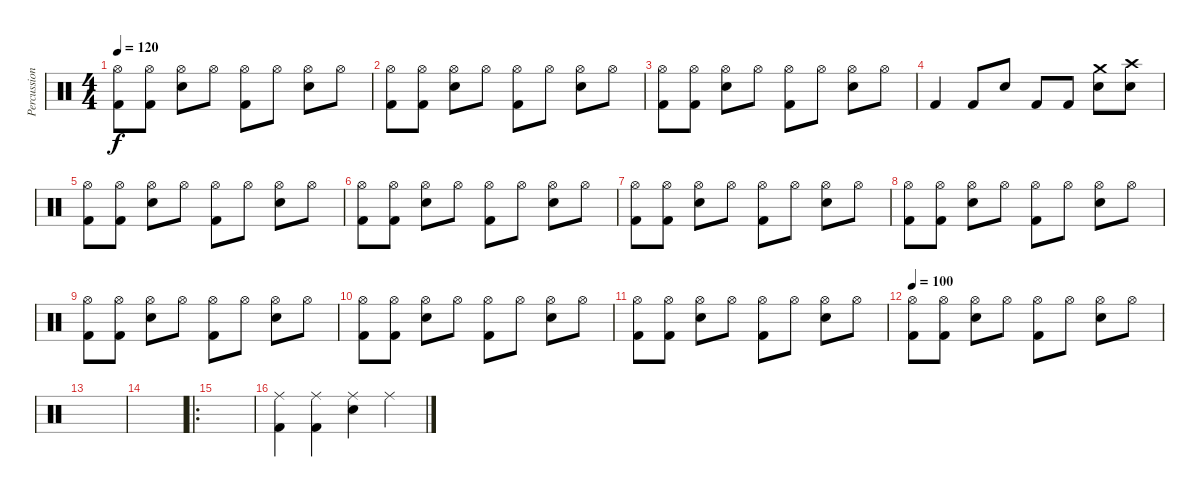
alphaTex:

\track ("Percussion" "Percussion") {instrument percussion}
\staff {score}
\articulation defaults
\ts (4 4)
\tempo 120
\clef neutral
\ks c
("Hi-Hat (open)" "Kick (hit) 2").8{dy f} ("Hi-Hat (open)" "Kick (hit) 2").8 ("Hi-Hat (open)" "Snare (hit) 2").8 "Hi-Hat (open)".8 ("Hi-Hat (open)" "Kick (hit) 2").8 "Hi-Hat (open)".8 ("Hi-Hat (open)" "Snare (hit) 2").8 "Hi-Hat (open)".8 |
("Hi-Hat (open)" "Kick (hit) 2").8 ("Hi-Hat (open)" "Kick (hit) 2").8 ("Hi-Hat (open)" "Snare (hit) 2").8 "Hi-Hat (open)".8 ("Hi-Hat (open)" "Kick (hit) 2").8 "Hi-Hat (open)".8 ("Hi-Hat (open)" "Snare (hit) 2").8 "Hi-Hat (open)".8 |
("Hi-Hat (open)" "Kick (hit) 2").8 ("Hi-Hat (open)" "Kick (hit) 2").8 ("Hi-Hat (open)" "Snare (hit) 2").8 "Hi-Hat (open)".8 ("Hi-Hat (open)" "Kick (hit) 2").8 "Hi-Hat (open)".8 ("Hi-Hat (open)" "Snare (hit) 2").8 "Hi-Hat (open)".8 |
"Kick (hit) 2".4 "Kick (hit) 2".8 "Snare (hit) 2".8 "Kick (hit) 2".8 "Kick (hit) 2".8 ("Crash medium (hit)" "Snare (hit) 2").8 ("Crash high (hit)" "Snare (hit) 2").8 |
("Hi-Hat (open)" "Kick (hit) 2").8 ("Hi-Hat (open)" "Kick (hit) 2").8 ("Hi-Hat (open)" "Snare (hit) 2").8 "Hi-Hat (open)".8 ("Hi-Hat (open)" "Kick (hit) 2").8 "Hi-Hat (open)".8 ("Hi-Hat (open)" "Snare (hit) 2").8 "Hi-Hat (open)".8 |
("Hi-Hat (open)" "Kick (hit) 2").8 ("Hi-Hat (open)" "Kick (hit) 2").8 ("Hi-Hat (open)" "Snare (hit) 2").8 "Hi-Hat (open)".8 ("Hi-Hat (open)" "Kick (hit) 2").8 "Hi-Hat (open)".8 ("Hi-Hat (open)" "Snare (hit) 2").8 "Hi-Hat (open)".8 |
("Hi-Hat (open)" "Kick (hit) 2").8 ("Hi-Hat (open)" "Kick (hit) 2").8 ("Hi-Hat (open)" "Snare (hit) 2").8 "Hi-Hat (open)".8 ("Hi-Hat (open)" "Kick (hit) 2").8 "Hi-Hat (open)".8 ("Hi-Hat (open)" "Snare (hit) 2").8 "Hi-Hat (open)".8 |
("Hi-Hat (open)" "Kick (hit) 2").8 ("Hi-Hat (open)" "Kick (hit) 2").8 ("Hi-Hat (open)" "Snare (hit) 2").8 "Hi-Hat (open)".8 ("Hi-Hat (open)" "Kick (hit) 2").8 "Hi-Hat (open)".8 ("Hi-Hat (open)" "Snare (hit) 2").8 "Hi-Hat (open)".8 |
("Hi-Hat (open)" "Kick (hit) 2").8 ("Hi-Hat (open)" "Kick (hit) 2").8 ("Hi-Hat (open)" "Snare (hit) 2").8 "Hi-Hat (open)".8 ("Hi-Hat (open)" "Kick (hit) 2").8 "Hi-Hat (open)".8 ("Hi-Hat (open)" "Snare (hit) 2").8 "Hi-Hat (open)".8 |
("Hi-Hat (open)" "Kick (hit) 2").8 ("Hi-Hat (open)" "Kick (hit) 2").8 ("Hi-Hat (open)" "Snare (hit) 2").8 "Hi-Hat (open)".8 ("Hi-Hat (open)" "Kick (hit) 2").8 "Hi-Hat (open)".8 ("Hi-Hat (open)" "Snare (hit) 2").8 "Hi-Hat (open)".8 |
("Hi-Hat (open)" "Kick (hit) 2").8 ("Hi-Hat (open)" "Kick (hit) 2").8 ("Hi-Hat (open)" "Snare (hit) 2").8 "Hi-Hat (open)".8 ("Hi-Hat (open)" "Kick (hit) 2").8 "Hi-Hat (open)".8 ("Hi-Hat (open)" "Snare (hit) 2").8 "Hi-Hat (open)".8 |
\tempo 100
("Hi-Hat (open)" "Kick (hit) 2").8 ("Hi-Hat (open)" "Kick (hit) 2").8 ("Hi-Hat (open)" "Snare (hit) 2").8 "Hi-Hat (open)".8 ("Hi-Hat (open)" "Kick (hit) 2").8 "Hi-Hat (open)".8 ("Hi-Hat (open)" "Snare (hit) 2").8 "Hi-Hat (open)".8 |
|
|
\ro
|
("Ride (middle)" "Kick (hit) 2").4 ("Ride (middle)" "Kick (hit) 2").4 ("Ride (middle)" "Snare (hit) 2").4 "Ride (middle)".4
